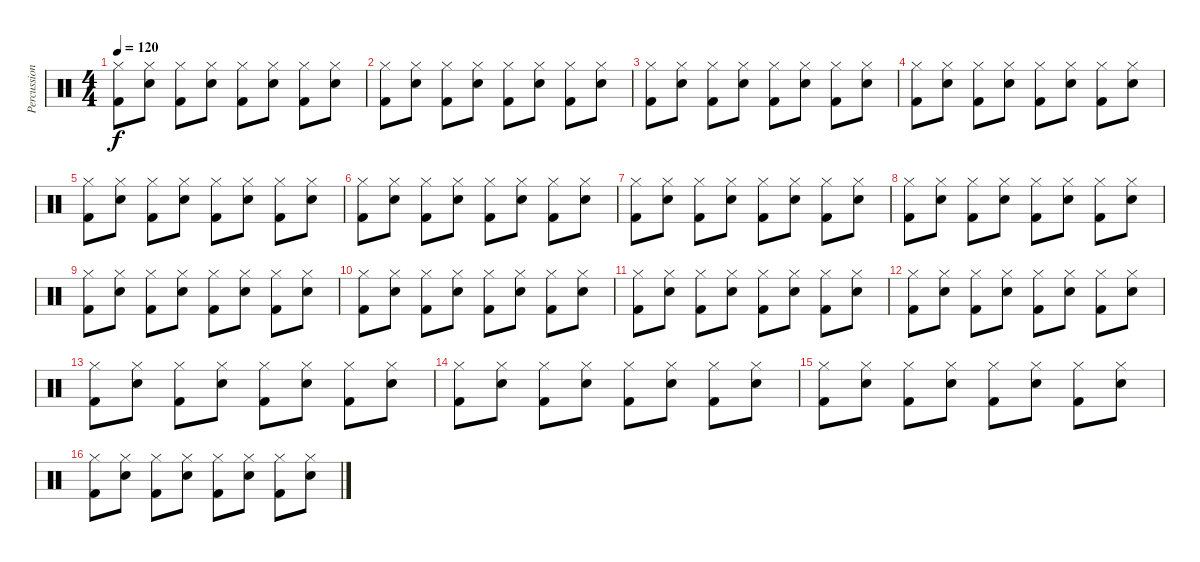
\track ("Percussion" "Percussion") {instrument percussion}
\staff {score}
\articulation defaults
\ts (4 4)
\tempo 120
\clef neutral
\ks c
("Hi-Hat (closed)" "Kick (hit) 2").8{dy f} ("Hi-Hat (closed)" "Electric Snare (hit)").8 ("Hi-Hat (closed)" "Kick (hit) 2").8 ("Hi-Hat (closed)" "Electric Snare (hit)").8 ("Hi-Hat (closed)" "Kick (hit) 2").8 ("Hi-Hat (closed)" "Electric Snare (hit)").8 ("Hi-Hat (closed)" "Kick (hit) 2").8 ("Hi-Hat (closed)" "Electric Snare (hit)").8 |
("Hi-Hat (closed)" "Kick (hit) 2").8 ("Hi-Hat (closed)" "Electric Snare (hit)").8 ("Hi-Hat (closed)" "Kick (hit) 2").8 ("Hi-Hat (closed)" "Electric Snare (hit)").8 ("Hi-Hat (closed)" "Kick (hit) 2").8 ("Hi-Hat (closed)" "Electric Snare (hit)").8 ("Hi-Hat (closed)" "Kick (hit) 2").8 ("Hi-Hat (closed)" "Electric Snare (hit)").8 |
("Hi-Hat (closed)" "Kick (hit) 2").8 ("Hi-Hat (closed)" "Electric Snare (hit)").8 ("Hi-Hat (closed)" "Kick (hit) 2").8 ("Hi-Hat (closed)" "Electric Snare (hit)").8 ("Hi-Hat (closed)" "Kick (hit) 2").8 ("Hi-Hat (closed)" "Electric Snare (hit)").8 ("Hi-Hat (closed)" "Kick (hit) 2").8 ("Hi-Hat (closed)" "Electric Snare (hit)").8 |
("Hi-Hat (closed)" "Kick (hit) 2").8 ("Hi-Hat (closed)" "Electric Snare (hit)").8 ("Hi-Hat (closed)" "Kick (hit) 2").8 ("Hi-Hat (closed)" "Electric Snare (hit)").8 ("Hi-Hat (closed)" "Kick (hit) 2").8 ("Hi-Hat (closed)" "Electric Snare (hit)").8 ("Hi-Hat (closed)" "Kick (hit) 2").8 ("Hi-Hat (closed)" "Electric Snare (hit)").8 |
("Hi-Hat (closed)" "Kick (hit) 2").8 ("Hi-Hat (closed)" "Electric Snare (hit)").8 ("Hi-Hat (closed)" "Kick (hit) 2").8 ("Hi-Hat (closed)" "Electric Snare (hit)").8 ("Hi-Hat (closed)" "Kick (hit) 2").8 ("Hi-Hat (closed)" "Electric Snare (hit)").8 ("Hi-Hat (closed)" "Kick (hit) 2").8 ("Hi-Hat (closed)" "Electric Snare (hit)").8 |
("Hi-Hat (closed)" "Kick (hit) 2").8 ("Hi-Hat (closed)" "Electric Snare (hit)").8 ("Hi-Hat (closed)" "Kick (hit) 2").8 ("Hi-Hat (closed)" "Electric Snare (hit)").8 ("Hi-Hat (closed)" "Kick (hit) 2").8 ("Hi-Hat (closed)" "Electric Snare (hit)").8 ("Hi-Hat (closed)" "Kick (hit) 2").8 ("Hi-Hat (closed)" "Electric Snare (hit)").8 |
("Hi-Hat (closed)" "Kick (hit) 2").8 ("Hi-Hat (closed)" "Electric Snare (hit)").8 ("Hi-Hat (closed)" "Kick (hit) 2").8 ("Hi-Hat (closed)" "Electric Snare (hit)").8 ("Hi-Hat (closed)" "Kick (hit) 2").8 ("Hi-Hat (closed)" "Electric Snare (hit)").8 ("Hi-Hat (closed)" "Kick (hit) 2").8 ("Hi-Hat (closed)" "Electric Snare (hit)").8 |
("Hi-Hat (closed)" "Kick (hit) 2").8 ("Hi-Hat (closed)" "Electric Snare (hit)").8 ("Hi-Hat (closed)" "Kick (hit) 2").8 ("Hi-Hat (closed)" "Electric Snare (hit)").8 ("Hi-Hat (closed)" "Kick (hit) 2").8 ("Hi-Hat (closed)" "Electric Snare (hit)").8 ("Hi-Hat (closed)" "Kick (hit) 2").8 ("Hi-Hat (closed)" "Electric Snare (hit)").8 |
("Hi-Hat (closed)" "Kick (hit) 2").8 ("Hi-Hat (closed)" "Electric Snare (hit)").8 ("Hi-Hat (closed)" "Kick (hit) 2").8 ("Hi-Hat (closed)" "Electric Snare (hit)").8 ("Hi-Hat (closed)" "Kick (hit) 2").8 ("Hi-Hat (closed)" "Electric Snare (hit)").8 ("Hi-Hat (closed)" "Kick (hit) 2").8 ("Hi-Hat (closed)" "Electric Snare (hit)").8 |
("Hi-Hat (closed)" "Kick (hit) 2").8 ("Hi-Hat (closed)" "Electric Snare (hit)").8 ("Hi-Hat (closed)" "Kick (hit) 2").8 ("Hi-Hat (closed)" "Electric Snare (hit)").8 ("Hi-Hat (closed)" "Kick (hit) 2").8 ("Hi-Hat (closed)" "Electric Snare (hit)").8 ("Hi-Hat (closed)" "Kick (hit) 2").8 ("Hi-Hat (closed)" "Electric Snare (hit)").8 |
("Hi-Hat (closed)" "Kick (hit) 2").8 ("Hi-Hat (closed)" "Electric Snare (hit)").8 ("Hi-Hat (closed)" "Kick (hit) 2").8 ("Hi-Hat (closed)" "Electric Snare (hit)").8 ("Hi-Hat (closed)" "Kick (hit) 2").8 ("Hi-Hat (closed)" "Electric Snare (hit)").8 ("Hi-Hat (closed)" "Kick (hit) 2").8 ("Hi-Hat (closed)" "Electric Snare (hit)").8 |
("Hi-Hat (closed)" "Kick (hit) 2").8 ("Hi-Hat (closed)" "Electric Snare (hit)").8 ("Hi-Hat (closed)" "Kick (hit) 2").8 ("Hi-Hat (closed)" "Electric Snare (hit)").8 ("Hi-Hat (closed)" "Kick (hit) 2").8 ("Hi-Hat (closed)" "Electric Snare (hit)").8 ("Hi-Hat (closed)" "Kick (hit) 2").8 ("Hi-Hat (closed)" "Electric Snare (hit)").8 |
("Hi-Hat (closed)" "Kick (hit) 2").8 ("Hi-Hat (closed)" "Electric Snare (hit)").8 ("Hi-Hat (closed)" "Kick (hit) 2").8 ("Hi-Hat (closed)" "Electric Snare (hit)").8 ("Hi-Hat (closed)" "Kick (hit) 2").8 ("Hi-Hat (closed)" "Electric Snare (hit)").8 ("Hi-Hat (closed)" "Kick (hit) 2").8 ("Hi-Hat (closed)" "Electric Snare (hit)").8 |
("Hi-Hat (closed)" "Kick (hit) 2").8 ("Hi-Hat (closed)" "Electric Snare (hit)").8 ("Hi-Hat (closed)" "Kick (hit) 2").8 ("Hi-Hat (closed)" "Electric Snare (hit)").8 ("Hi-Hat (closed)" "Kick (hit) 2").8 ("Hi-Hat (closed)" "Electric Snare (hit)").8 ("Hi-Hat (closed)" "Kick (hit) 2").8 ("Hi-Hat (closed)" "Electric Snare (hit)").8 |
("Hi-Hat (closed)" "Kick (hit) 2").8 ("Hi-Hat (closed)" "Electric Snare (hit)").8 ("Hi-Hat (closed)" "Kick (hit) 2").8 ("Hi-Hat (closed)" "Electric Snare (hit)").8 ("Hi-Hat (closed)" "Kick (hit) 2").8 ("Hi-Hat (closed)" "Electric Snare (hit)").8 ("Hi-Hat (closed)" "Kick (hit) 2").8 ("Hi-Hat (closed)" "Electric Snare (hit)").8 |
("Hi-Hat (closed)" "Kick (hit) 2").8 ("Hi-Hat (closed)" "Electric Snare (hit)").8 ("Hi-Hat (closed)" "Kick (hit) 2").8 ("Hi-Hat (closed)" "Electric Snare (hit)").8 ("Hi-Hat (closed)" "Kick (hit) 2").8 ("Hi-Hat (closed)" "Electric Snare (hit)").8 ("Hi-Hat (closed)" "Kick (hit) 2").8 ("Hi-Hat (closed)" "Electric Snare (hit)").8
